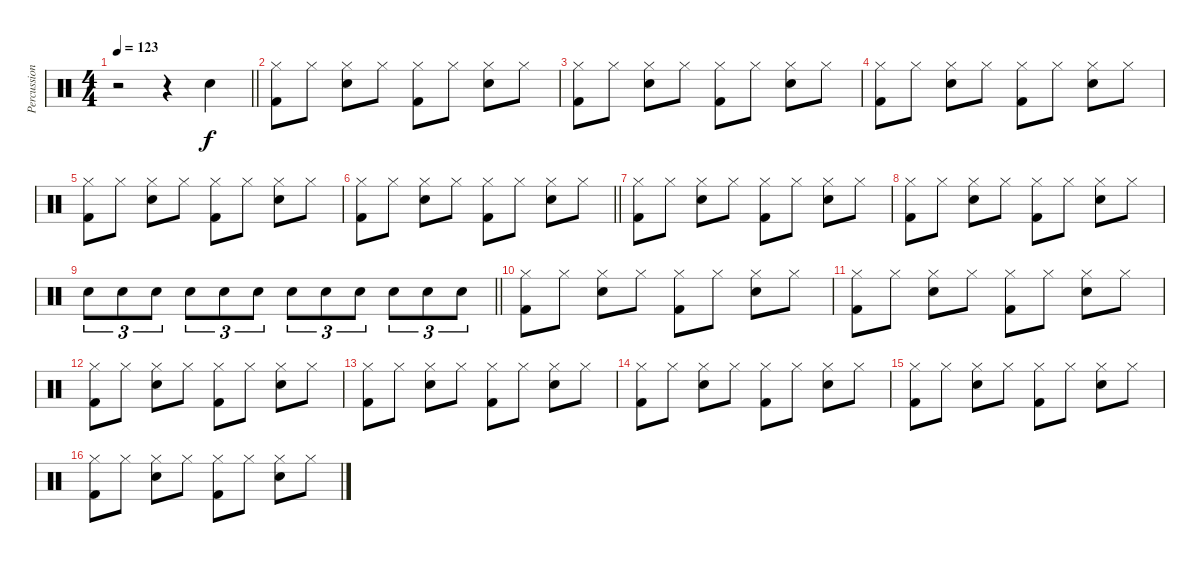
\track ("Percussions" "Percussion") {instrument percussion}
\staff {score}
\articulation defaults
\ts (4 4)
\tempo 123
\clef neutral
\barLineRight lightlight
\ks c
r.2{dy f} r.4 "Snare (hit) 2".4 |
("Hi-Hat (closed)" "Kick (hit) 2").8 "Hi-Hat (closed)".8 ("Hi-Hat (closed)" "Snare (hit) 2").8 "Hi-Hat (closed)".8 ("Hi-Hat (closed)" "Kick (hit) 2").8 "Hi-Hat (closed)".8 ("Hi-Hat (closed)" "Snare (hit) 2").8 "Hi-Hat (closed)".8 |
("Hi-Hat (closed)" "Kick (hit) 2").8 "Hi-Hat (closed)".8 ("Hi-Hat (closed)" "Snare (hit) 2").8 "Hi-Hat (closed)".8 ("Hi-Hat (closed)" "Kick (hit) 2").8 "Hi-Hat (closed)".8 ("Hi-Hat (closed)" "Snare (hit) 2").8 "Hi-Hat (closed)".8 |
("Hi-Hat (closed)" "Kick (hit) 2").8 "Hi-Hat (closed)".8 ("Hi-Hat (closed)" "Snare (hit) 2").8 "Hi-Hat (closed)".8 ("Hi-Hat (closed)" "Kick (hit) 2").8 "Hi-Hat (closed)".8 ("Hi-Hat (closed)" "Snare (hit) 2").8 "Hi-Hat (closed)".8 |
("Hi-Hat (closed)" "Kick (hit) 2").8 "Hi-Hat (closed)".8 ("Hi-Hat (closed)" "Snare (hit) 2").8 "Hi-Hat (closed)".8 ("Hi-Hat (closed)" "Kick (hit) 2").8 "Hi-Hat (closed)".8 ("Hi-Hat (closed)" "Snare (hit) 2").8 "Hi-Hat (closed)".8 |
\barLineRight lightlight
("Hi-Hat (closed)" "Kick (hit) 2").8 "Hi-Hat (closed)".8 ("Hi-Hat (closed)" "Snare (hit) 2").8 "Hi-Hat (closed)".8 ("Hi-Hat (closed)" "Kick (hit) 2").8 "Hi-Hat (closed)".8 ("Hi-Hat (closed)" "Snare (hit) 2").8 "Hi-Hat (closed)".8 |
("Hi-Hat (closed)" "Kick (hit) 2").8 "Hi-Hat (closed)".8 ("Hi-Hat (closed)" "Snare (hit) 2").8 "Hi-Hat (closed)".8 ("Hi-Hat (closed)" "Kick (hit) 2").8 "Hi-Hat (closed)".8 ("Hi-Hat (closed)" "Snare (hit) 2").8 "Hi-Hat (closed)".8 |
("Hi-Hat (closed)" "Kick (hit) 2").8 "Hi-Hat (closed)".8 ("Hi-Hat (closed)" "Snare (hit) 2").8 "Hi-Hat (closed)".8 ("Hi-Hat (closed)" "Kick (hit) 2").8 "Hi-Hat (closed)".8 ("Hi-Hat (closed)" "Snare (hit) 2").8 "Hi-Hat (closed)".8 |
\barLineRight lightlight "Snare (hit) 2".8{tu (3 2)} "Snare (hit) 2".8{tu (3 2)} "Snare (hit) 2".8{tu (3 2)} "Snare (hit) 2".8{tu (3 2)} "Snare (hit) 2".8{tu (3 2)} "Snare (hit) 2".8{tu (3 2)} "Snare (hit) 2".8{tu (3 2)} "Snare (hit) 2".8{tu (3 2)} "Snare (hit) 2".8{tu (3 2)} "Snare (hit) 2".8{tu (3 2)} "Snare (hit) 2".8{tu (3 2)} "Snare (hit) 2".8{tu (3 2)}
|
("Hi-Hat (closed)" "Kick (hit) 2").8 "Hi-Hat (closed)".8 ("Hi-Hat (closed)" "Snare (hit) 2").8 "Hi-Hat (closed)".8 ("Hi-Hat (closed)" "Kick (hit) 2").8 "Hi-Hat (closed)".8 ("Hi-Hat (closed)" "Snare (hit) 2").8 "Hi-Hat (closed)".8 |
("Hi-Hat (closed)" "Kick (hit) 2").8 "Hi-Hat (closed)".8 ("Hi-Hat (closed)" "Snare (hit) 2").8 "Hi-Hat (closed)".8 ("Hi-Hat (closed)" "Kick (hit) 2").8 "Hi-Hat (closed)".8 ("Hi-Hat (closed)" "Snare (hit) 2").8 "Hi-Hat (closed)".8 |
("Hi-Hat (closed)" "Kick (hit) 2").8 "Hi-Hat (closed)".8 ("Hi-Hat (closed)" "Snare (hit) 2").8 "Hi-Hat (closed)".8 ("Hi-Hat (closed)" "Kick (hit) 2").8 "Hi-Hat (closed)".8 ("Hi-Hat (closed)" "Snare (hit) 2").8 "Hi-Hat (closed)".8 |
("Hi-Hat (closed)" "Kick (hit) 2").8 "Hi-Hat (closed)".8 ("Hi-Hat (closed)" "Snare (hit) 2").8 "Hi-Hat (closed)".8 ("Hi-Hat (closed)" "Kick (hit) 2").8 "Hi-Hat (closed)".8 ("Hi-Hat (closed)" "Snare (hit) 2").8 "Hi-Hat (closed)".8 |
("Hi-Hat (closed)" "Kick (hit) 2").8 "Hi-Hat (closed)".8 ("Hi-Hat (closed)" "Snare (hit) 2").8 "Hi-Hat (closed)".8 ("Hi-Hat (closed)" "Kick (hit) 2").8 "Hi-Hat (closed)".8 ("Hi-Hat (closed)" "Snare (hit) 2").8 "Hi-Hat (closed)".8 |
("Hi-Hat (closed)" "Kick (hit) 2").8 "Hi-Hat (closed)".8 ("Hi-Hat (closed)" "Snare (hit) 2").8 "Hi-Hat (closed)".8 ("Hi-Hat (closed)" "Kick (hit) 2").8 "Hi-Hat (closed)".8 ("Hi-Hat (closed)" "Snare (hit) 2").8 "Hi-Hat (closed)".8 |
("Hi-Hat (closed)" "Kick (hit) 2").8 "Hi-Hat (closed)".8 ("Hi-Hat (closed)" "Snare (hit) 2").8 "Hi-Hat (closed)".8 ("Hi-Hat (closed)" "Kick (hit) 2").8 "Hi-Hat (closed)".8 ("Hi-Hat (closed)" "Snare (hit) 2").8 "Hi-Hat (closed)".8
